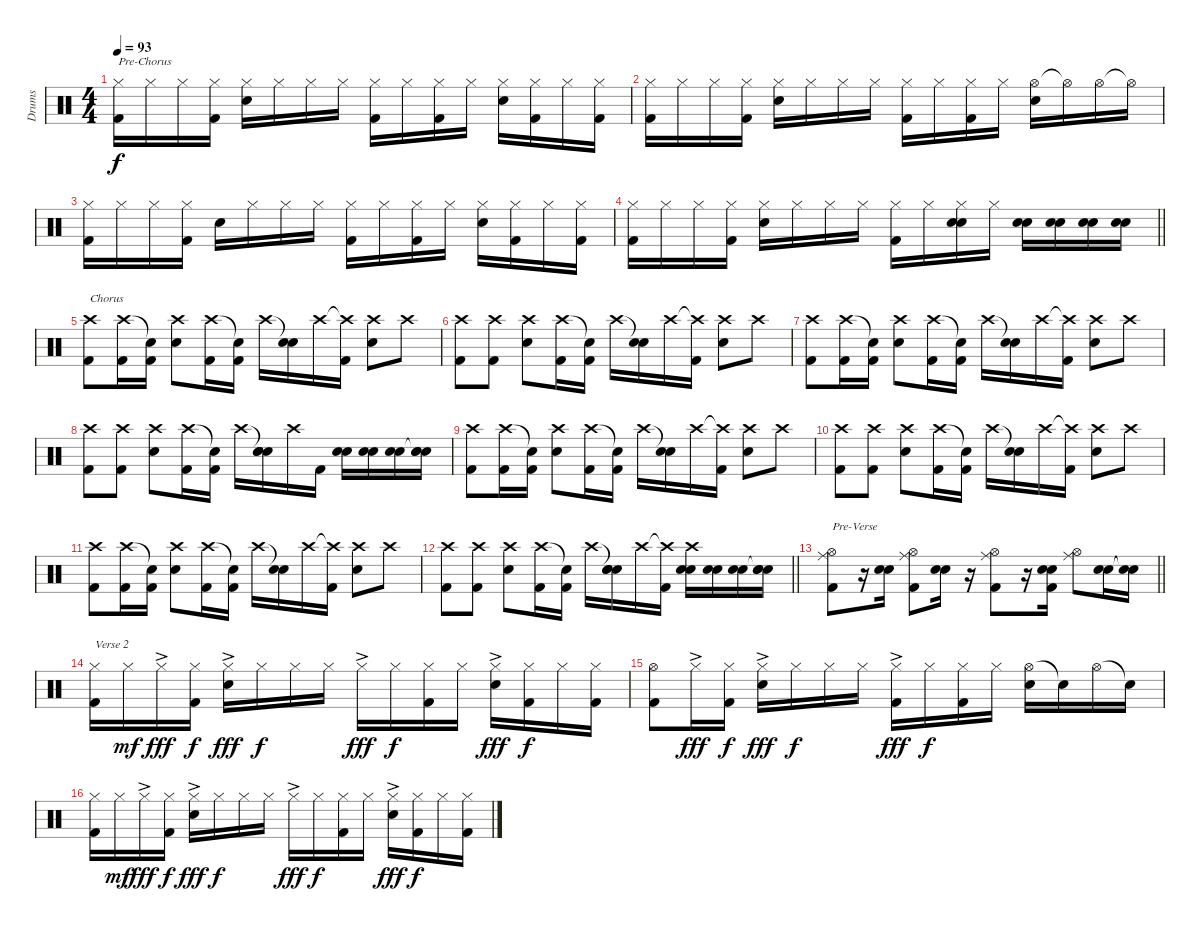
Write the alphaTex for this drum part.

\track ("Drums" "Drums") {instrument percussion}
\staff {score}
\articulation defaults
\ts (4 4)
\tempo 93
\clef neutral
\ks c
("Hi-Hat (closed)" "Kick (hit) 2").16{txt "Pre-Chorus" dy f} "Hi-Hat (closed)".16 "Hi-Hat (closed)".16 ("Hi-Hat (closed)" "Kick (hit) 2").16 ("Hi-Hat (closed)" "Electric Snare (hit)").16 "Hi-Hat (closed)".16 "Hi-Hat (closed)".16 "Hi-Hat (closed)".16 ("Hi-Hat (closed)" "Kick (hit) 2").16 "Hi-Hat (closed)".16 ("Hi-Hat (closed)" "Kick (hit) 2").16 "Hi-Hat (closed)".16 ("Hi-Hat (closed)" "Electric Snare (hit)").16 ("Hi-Hat (closed)" "Kick (hit) 2").16 "Hi-Hat (closed)".16 ("Hi-Hat (closed)" "Kick (hit) 2").16 |
("Hi-Hat (closed)" "Kick (hit) 2").16 "Hi-Hat (closed)".16 "Hi-Hat (closed)".16 ("Hi-Hat (closed)" "Kick (hit) 2").16 ("Hi-Hat (closed)" "Electric Snare (hit)").16 "Hi-Hat (closed)".16 "Hi-Hat (closed)".16 "Hi-Hat (closed)".16 ("Hi-Hat (closed)" "Kick (hit) 2").16 "Hi-Hat (closed)".16 ("Hi-Hat (closed)" "Kick (hit) 2").16 "Hi-Hat (closed)".16 ("Hi-Hat (open)" "Electric Snare (hit)").16 "Hi-Hat (open)"{t}.16 "Hi-Hat (open)".16 "Hi-Hat (open)"{t}.16 |
("Hi-Hat (closed)" "Kick (hit) 2").16 "Hi-Hat (closed)".16 "Hi-Hat (closed)".16 ("Hi-Hat (closed)" "Kick (hit) 2").16 "Electric Snare (hit)".16 "Hi-Hat (closed)".16 "Hi-Hat (closed)".16 "Hi-Hat (closed)".16 ("Hi-Hat (closed)" "Kick (hit) 2").16 "Hi-Hat (closed)".16 ("Hi-Hat (closed)" "Kick (hit) 2").16 "Hi-Hat (closed)".16 ("Hi-Hat (closed)" "Electric Snare (hit)").16 ("Hi-Hat (closed)" "Kick (hit) 2").16 "Hi-Hat (closed)".16 ("Hi-Hat (closed)" "Kick (hit) 2").16 |
\barLineRight lightlight
("Hi-Hat (closed)" "Kick (hit) 2").16 "Hi-Hat (closed)".16 "Hi-Hat (closed)".16 ("Hi-Hat (closed)" "Kick (hit) 2").16 ("Hi-Hat (closed)" "Electric Snare (hit)").16 "Hi-Hat (closed)".16 "Hi-Hat (closed)".16 "Hi-Hat (closed)".16 ("Hi-Hat (closed)" "Kick (hit) 2").16 "Hi-Hat (closed)".16 ("Hi-Hat (closed)" "Electric Snare (hit)" "Electric Snare (hit)").16 "Hi-Hat (closed)".16 ("Electric Snare (hit)" "Electric Snare (hit)").16 ("Electric Snare (hit)" "Electric Snare (hit)").16 ("Electric Snare (hit)" "Electric Snare (hit)").16 ("Electric Snare (hit)" "Electric Snare (hit)").16 |
("Crash high (hit)" "Kick (hit) 2").8{txt "Chorus"} ("Crash high (hit)" "Kick (hit) 2").16 ("Snare (hit)"{t} "Kick (hit) 2").16 ("Crash high (hit)" "Electric Snare (hit)").8 ("Crash high (hit)" "Kick (hit) 2").16 ("Snare (hit)"{t} "Kick (hit) 2").16 "Crash high (hit)".16 ("Snare (hit)"{t} "Electric Snare (hit)").16 "Crash high (hit)".16 ("Crash high (hit)"{t} "Kick (hit) 2").16 ("Crash high (hit)" "Electric Snare (hit)").8 "Crash high (hit)".8 |
("Crash high (hit)" "Kick (hit) 2").8 ("Crash high (hit)" "Kick (hit) 2").8 ("Crash high (hit)" "Electric Snare (hit)").8 ("Crash high (hit)" "Kick (hit) 2").16 ("Snare (hit)"{t} "Kick (hit) 2").16 "Crash high (hit)".16 ("Snare (hit)"{t} "Electric Snare (hit)").16 "Crash high (hit)".16 ("Crash high (hit)"{t} "Kick (hit) 2").16 ("Crash high (hit)" "Electric Snare (hit)").8 "Crash high (hit)".8 |
("Crash high (hit)" "Kick (hit) 2").8 ("Crash high (hit)" "Kick (hit) 2").16 ("Snare (hit)"{t} "Kick (hit) 2").16 ("Crash high (hit)" "Electric Snare (hit)").8 ("Crash high (hit)" "Kick (hit) 2").16 ("Snare (hit)"{t} "Kick (hit) 2").16 "Crash high (hit)".16 ("Snare (hit)"{t} "Electric Snare (hit)").16 "Crash high (hit)".16 ("Crash high (hit)"{t} "Kick (hit) 2").16 ("Crash high (hit)" "Electric Snare (hit)").8 "Crash high (hit)".8 |
("Crash high (hit)" "Kick (hit) 2").8 ("Crash high (hit)" "Kick (hit) 2").8 ("Crash high (hit)" "Electric Snare (hit)").8 ("Crash high (hit)" "Kick (hit) 2").16 ("Snare (hit)"{t} "Kick (hit) 2").16 "Crash high (hit)".16 ("Snare (hit)"{t} "Electric Snare (hit)" "Electric Snare (hit)").16 "Crash high (hit)".16 "Kick (hit) 2".16 ("Electric Snare (hit)" "Electric Snare (hit)").16 ("Electric Snare (hit)" "Electric Snare (hit)").16 ("Electric Snare (hit)" "Electric Snare (hit)").16 ("Snare (hit)"{t} "Electric Snare (hit)" "Electric Snare (hit)").16 |
("Crash high (hit)" "Kick (hit) 2").8 ("Crash high (hit)" "Kick (hit) 2").16 ("Snare (hit)"{t} "Kick (hit) 2").16 ("Crash high (hit)" "Electric Snare (hit)").8 ("Crash high (hit)" "Kick (hit) 2").16 ("Snare (hit)"{t} "Kick (hit) 2").16 "Crash high (hit)".16 ("Snare (hit)"{t} "Electric Snare (hit)").16 "Crash high (hit)".16 ("Crash high (hit)"{t} "Kick (hit) 2").16 ("Crash high (hit)" "Electric Snare (hit)").8 "Crash high (hit)".8 |
("Crash high (hit)" "Kick (hit) 2").8 ("Crash high (hit)" "Kick (hit) 2").8 ("Crash high (hit)" "Electric Snare (hit)").8 ("Crash high (hit)" "Kick (hit) 2").16 ("Snare (hit)"{t} "Kick (hit) 2").16 "Crash high (hit)".16 ("Snare (hit)"{t} "Electric Snare (hit)").16 "Crash high (hit)".16 ("Crash high (hit)"{t} "Kick (hit) 2").16 ("Crash high (hit)" "Electric Snare (hit)").8 "Crash high (hit)".8 |
("Crash high (hit)" "Kick (hit) 2").8 ("Crash high (hit)" "Kick (hit) 2").16 ("Snare (hit)"{t} "Kick (hit) 2").16 ("Crash high (hit)" "Electric Snare (hit)").8 ("Crash high (hit)" "Kick (hit) 2").16 ("Snare (hit)"{t} "Kick (hit) 2").16 "Crash high (hit)".16 ("Snare (hit)"{t} "Electric Snare (hit)").16 "Crash high (hit)".16 ("Crash high (hit)"{t} "Kick (hit) 2").16 ("Crash high (hit)" "Electric Snare (hit)").8 "Crash high (hit)".8 |
\barLineRight lightlight
("Crash high (hit)" "Kick (hit) 2").8 ("Crash high (hit)" "Kick (hit) 2").8 ("Crash high (hit)" "Electric Snare (hit)").8 ("Crash high (hit)" "Kick (hit) 2").16 ("Snare (hit)"{t} "Kick (hit) 2").16 "Crash high (hit)".16 ("Snare (hit)"{t} "Electric Snare (hit)" "Electric Snare (hit)").16 "Crash high (hit)".16 ("Crash high (hit)"{t} "Kick (hit) 2").16 ("Crash high (hit)" "Electric Snare (hit)" "Electric Snare (hit)").16 ("Electric Snare (hit)" "Electric Snare (hit)").16 ("Electric Snare (hit)" "Electric Snare (hit)").16 ("Snare (hit)"{t} "Electric Snare (hit)" "Electric Snare (hit)").16 |
\barLineRight lightlight
("Ride (middle)" "Hi-Hat (open)" "Kick (hit) 2").8{txt "Pre-Verse"} r.16 ("Electric Snare (hit)" "Electric Snare (hit)").16 ("Ride (middle)" "Hi-Hat (open)" "Kick (hit) 2").8 ("Electric Snare (hit)" "Electric Snare (hit)").16 r.16 ("Ride (middle)" "Hi-Hat (open)" "Kick (hit) 2").8 r.16 ("Electric Snare (hit)" "Electric Snare (hit)" "Kick (hit) 2").16 ("Ride (middle)" "Hi-Hat (open)").8 ("Electric Snare (hit)" "Electric Snare (hit)").16 ("Electric Snare (hit)"{t} "Snare (hit)"{t}).16 |
("Hi-Hat (closed)" "Kick (hit) 2").16{txt "Verse 2"} "Hi-Hat (closed)".16{dy mf} "Hi-Hat (closed)"{ac}.16{dy fff} ("Hi-Hat (closed)" "Kick (hit) 2").16{dy f} ("Hi-Hat (closed)"{ac} "Electric Snare (hit)").16{dy fff} "Hi-Hat (closed)".16{dy f} "Hi-Hat (closed)".16 "Hi-Hat (closed)".16 "Hi-Hat (closed)"{ac}.16{dy fff} "Hi-Hat (closed)".16{dy f} ("Hi-Hat (closed)" "Kick (hit) 2").16 "Hi-Hat (closed)".16 ("Hi-Hat (closed)"{ac} "Electric Snare (hit)").16{dy fff} ("Hi-Hat (closed)" "Kick (hit) 2").16{dy f} "Hi-Hat (closed)".16 ("Hi-Hat (closed)" "Kick (hit) 2").16 |
("Hi-Hat (open)" "Kick (hit) 2").8 "Hi-Hat (closed)"{ac}.16{dy fff} ("Hi-Hat (closed)" "Kick (hit) 2").16{dy f} ("Hi-Hat (closed)"{ac} "Electric Snare (hit)").16{dy fff} "Hi-Hat (closed)".16{dy f} "Hi-Hat (closed)".16 "Hi-Hat (closed)".16 ("Hi-Hat (closed)"{ac} "Kick (hit) 2").16{dy fff} "Hi-Hat (closed)".16{dy f} ("Hi-Hat (closed)" "Kick (hit) 2").16 "Hi-Hat (closed)".16 ("Hi-Hat (open)" "Electric Snare (hit)").16 "Snare (hit)"{t}.16 "Hi-Hat (open)".16 "Snare (hit)"{t}.16 |
("Hi-Hat (closed)" "Kick (hit) 2").16 "Hi-Hat (closed)".16{dy mf} "Hi-Hat (closed)"{ac}.16{dy fff} ("Hi-Hat (closed)" "Kick (hit) 2").16{dy f} ("Hi-Hat (closed)"{ac} "Electric Snare (hit)").16{dy fff} "Hi-Hat (closed)".16{dy f} "Hi-Hat (closed)".16 "Hi-Hat (closed)".16 "Hi-Hat (closed)"{ac}.16{dy fff} "Hi-Hat (closed)".16{dy f} ("Hi-Hat (closed)" "Kick (hit) 2").16 "Hi-Hat (closed)".16 ("Hi-Hat (closed)"{ac} "Electric Snare (hit)").16{dy fff} ("Hi-Hat (closed)" "Kick (hit) 2").16{dy f} "Hi-Hat (closed)".16 ("Hi-Hat (closed)" "Kick (hit) 2").16
